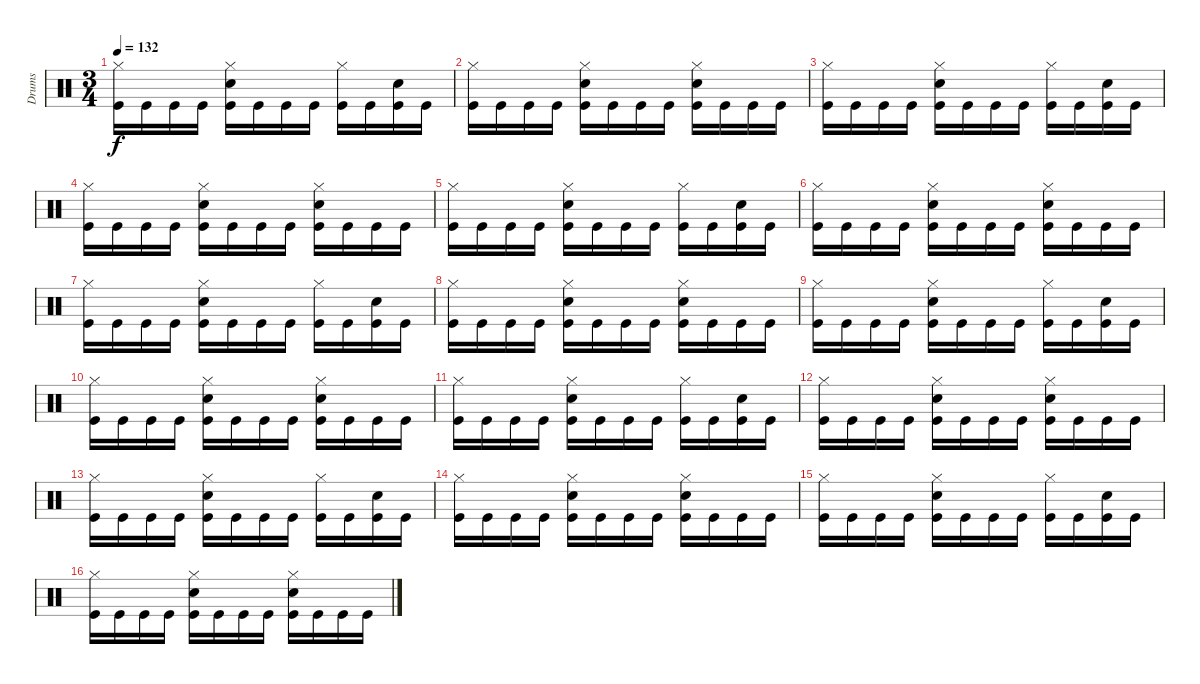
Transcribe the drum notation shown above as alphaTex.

\track ("Drums" "Drums") {instrument percussion}
\staff {score}
\articulation defaults
\ts (3 4)
\tempo 132
\clef neutral
\ks c
("Hi-Hat (closed)" "Kick (hit)").16{dy f} "Kick (hit)".16 "Kick (hit)".16 "Kick (hit)".16 ("Hi-Hat (closed)" "Kick (hit)" "Snare (hit) 2").16 "Kick (hit)".16 "Kick (hit)".16 "Kick (hit)".16 ("Hi-Hat (closed)" "Kick (hit)").16 "Kick (hit)".16 ("Kick (hit)" "Snare (hit) 2").16 "Kick (hit)".16 |
("Hi-Hat (closed)" "Kick (hit)").16 "Kick (hit)".16 "Kick (hit)".16 "Kick (hit)".16 ("Hi-Hat (closed)" "Kick (hit)" "Snare (hit) 2").16 "Kick (hit)".16 "Kick (hit)".16 "Kick (hit)".16 ("Hi-Hat (closed)" "Kick (hit)" "Snare (hit) 2").16 "Kick (hit)".16 "Kick (hit)".16 "Kick (hit)".16 |
("Hi-Hat (closed)" "Kick (hit)").16 "Kick (hit)".16 "Kick (hit)".16 "Kick (hit)".16 ("Hi-Hat (closed)" "Kick (hit)" "Snare (hit) 2").16 "Kick (hit)".16 "Kick (hit)".16 "Kick (hit)".16 ("Hi-Hat (closed)" "Kick (hit)").16 "Kick (hit)".16 ("Kick (hit)" "Snare (hit) 2").16 "Kick (hit)".16 |
("Hi-Hat (closed)" "Kick (hit)").16 "Kick (hit)".16 "Kick (hit)".16 "Kick (hit)".16 ("Hi-Hat (closed)" "Kick (hit)" "Snare (hit) 2").16 "Kick (hit)".16 "Kick (hit)".16 "Kick (hit)".16 ("Hi-Hat (closed)" "Kick (hit)" "Snare (hit) 2").16 "Kick (hit)".16 "Kick (hit)".16 "Kick (hit)".16 |
("Hi-Hat (closed)" "Kick (hit)").16 "Kick (hit)".16 "Kick (hit)".16 "Kick (hit)".16 ("Hi-Hat (closed)" "Kick (hit)" "Snare (hit) 2").16 "Kick (hit)".16 "Kick (hit)".16 "Kick (hit)".16 ("Hi-Hat (closed)" "Kick (hit)").16 "Kick (hit)".16 ("Kick (hit)" "Snare (hit) 2").16 "Kick (hit)".16 |
("Hi-Hat (closed)" "Kick (hit)").16 "Kick (hit)".16 "Kick (hit)".16 "Kick (hit)".16 ("Hi-Hat (closed)" "Kick (hit)" "Snare (hit) 2").16 "Kick (hit)".16 "Kick (hit)".16 "Kick (hit)".16 ("Hi-Hat (closed)" "Kick (hit)" "Snare (hit) 2").16 "Kick (hit)".16 "Kick (hit)".16 "Kick (hit)".16 |
("Hi-Hat (closed)" "Kick (hit)").16 "Kick (hit)".16 "Kick (hit)".16 "Kick (hit)".16 ("Hi-Hat (closed)" "Kick (hit)" "Snare (hit) 2").16 "Kick (hit)".16 "Kick (hit)".16 "Kick (hit)".16 ("Hi-Hat (closed)" "Kick (hit)").16 "Kick (hit)".16 ("Kick (hit)" "Snare (hit) 2").16 "Kick (hit)".16 |
("Hi-Hat (closed)" "Kick (hit)").16 "Kick (hit)".16 "Kick (hit)".16 "Kick (hit)".16 ("Hi-Hat (closed)" "Kick (hit)" "Snare (hit) 2").16 "Kick (hit)".16 "Kick (hit)".16 "Kick (hit)".16 ("Hi-Hat (closed)" "Kick (hit)" "Snare (hit) 2").16 "Kick (hit)".16 "Kick (hit)".16 "Kick (hit)".16 |
("Hi-Hat (closed)" "Kick (hit)").16 "Kick (hit)".16 "Kick (hit)".16 "Kick (hit)".16 ("Hi-Hat (closed)" "Kick (hit)" "Snare (hit) 2").16 "Kick (hit)".16 "Kick (hit)".16 "Kick (hit)".16 ("Hi-Hat (closed)" "Kick (hit)").16 "Kick (hit)".16 ("Kick (hit)" "Snare (hit) 2").16 "Kick (hit)".16 |
("Hi-Hat (closed)" "Kick (hit)").16 "Kick (hit)".16 "Kick (hit)".16 "Kick (hit)".16 ("Hi-Hat (closed)" "Kick (hit)" "Snare (hit) 2").16 "Kick (hit)".16 "Kick (hit)".16 "Kick (hit)".16 ("Hi-Hat (closed)" "Kick (hit)" "Snare (hit) 2").16 "Kick (hit)".16 "Kick (hit)".16 "Kick (hit)".16 |
("Hi-Hat (closed)" "Kick (hit)").16 "Kick (hit)".16 "Kick (hit)".16 "Kick (hit)".16 ("Hi-Hat (closed)" "Kick (hit)" "Snare (hit) 2").16 "Kick (hit)".16 "Kick (hit)".16 "Kick (hit)".16 ("Hi-Hat (closed)" "Kick (hit)").16 "Kick (hit)".16 ("Kick (hit)" "Snare (hit) 2").16 "Kick (hit)".16 |
("Hi-Hat (closed)" "Kick (hit)").16 "Kick (hit)".16 "Kick (hit)".16 "Kick (hit)".16 ("Hi-Hat (closed)" "Kick (hit)" "Snare (hit) 2").16 "Kick (hit)".16 "Kick (hit)".16 "Kick (hit)".16 ("Hi-Hat (closed)" "Kick (hit)" "Snare (hit) 2").16 "Kick (hit)".16 "Kick (hit)".16 "Kick (hit)".16 |
("Hi-Hat (closed)" "Kick (hit)").16 "Kick (hit)".16 "Kick (hit)".16 "Kick (hit)".16 ("Hi-Hat (closed)" "Kick (hit)" "Snare (hit) 2").16 "Kick (hit)".16 "Kick (hit)".16 "Kick (hit)".16 ("Hi-Hat (closed)" "Kick (hit)").16 "Kick (hit)".16 ("Kick (hit)" "Snare (hit) 2").16 "Kick (hit)".16 |
("Hi-Hat (closed)" "Kick (hit)").16 "Kick (hit)".16 "Kick (hit)".16 "Kick (hit)".16 ("Hi-Hat (closed)" "Kick (hit)" "Snare (hit) 2").16 "Kick (hit)".16 "Kick (hit)".16 "Kick (hit)".16 ("Hi-Hat (closed)" "Kick (hit)" "Snare (hit) 2").16 "Kick (hit)".16 "Kick (hit)".16 "Kick (hit)".16 |
("Hi-Hat (closed)" "Kick (hit)").16 "Kick (hit)".16 "Kick (hit)".16 "Kick (hit)".16 ("Hi-Hat (closed)" "Kick (hit)" "Snare (hit) 2").16 "Kick (hit)".16 "Kick (hit)".16 "Kick (hit)".16 ("Hi-Hat (closed)" "Kick (hit)").16 "Kick (hit)".16 ("Kick (hit)" "Snare (hit) 2").16 "Kick (hit)".16 |
("Hi-Hat (closed)" "Kick (hit)").16 "Kick (hit)".16 "Kick (hit)".16 "Kick (hit)".16 ("Hi-Hat (closed)" "Kick (hit)" "Snare (hit) 2").16 "Kick (hit)".16 "Kick (hit)".16 "Kick (hit)".16 ("Hi-Hat (closed)" "Kick (hit)" "Snare (hit) 2").16 "Kick (hit)".16 "Kick (hit)".16 "Kick (hit)".16
